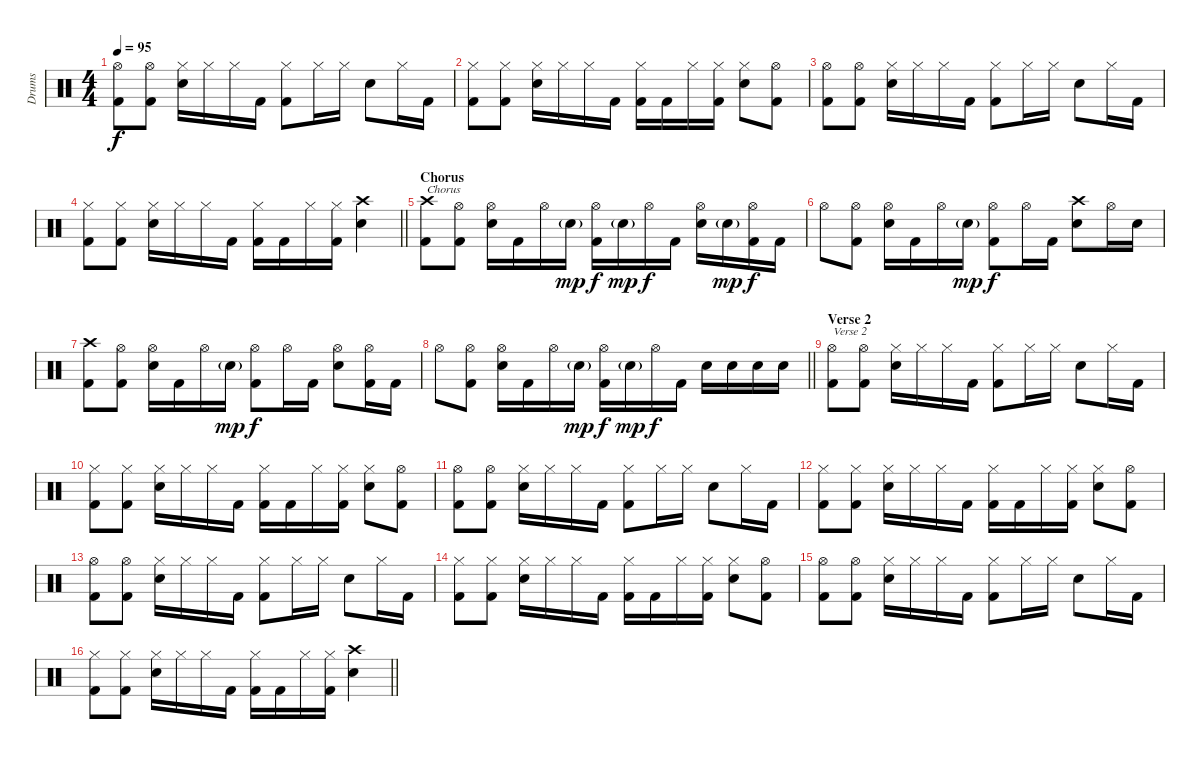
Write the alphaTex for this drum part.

\track ("Drums" "Drums") {instrument percussion}
\staff {score}
\articulation defaults
\ts (4 4)
\tempo 95
\clef neutral
\ks c
("Hi-Hat (open)" "Kick (hit) 2").8{dy f} ("Hi-Hat (open)" "Kick (hit) 2").8 ("Hi-Hat (closed)" "Electric Snare (hit)").16 "Hi-Hat (closed)".16 "Hi-Hat (closed)".16 "Kick (hit) 2".16 ("Hi-Hat (closed)" "Kick (hit) 2").8 "Hi-Hat (closed)".16 "Hi-Hat (closed)".16 "Electric Snare (hit)".8 "Hi-Hat (closed)".16 "Kick (hit) 2".16 |
("Hi-Hat (closed)" "Kick (hit) 2").8 ("Hi-Hat (closed)" "Kick (hit) 2").8 ("Hi-Hat (closed)" "Electric Snare (hit)").16 "Hi-Hat (closed)".16 "Hi-Hat (closed)".16 "Kick (hit) 2".16 ("Hi-Hat (closed)" "Kick (hit) 2").16 "Kick (hit) 2".16 "Hi-Hat (closed)".16 ("Hi-Hat (closed)" "Kick (hit) 2").16 ("Hi-Hat (closed)" "Electric Snare (hit)").8 ("Hi-Hat (open)" "Kick (hit) 2").8 |
("Hi-Hat (open)" "Kick (hit) 2").8 ("Hi-Hat (open)" "Kick (hit) 2").8 ("Hi-Hat (closed)" "Electric Snare (hit)").16 "Hi-Hat (closed)".16 "Hi-Hat (closed)".16 "Kick (hit) 2".16 ("Hi-Hat (closed)" "Kick (hit) 2").8 "Hi-Hat (closed)".16 "Hi-Hat (closed)".16 "Electric Snare (hit)".8 "Hi-Hat (closed)".16 "Kick (hit) 2".16 |
\barLineRight lightlight
("Hi-Hat (closed)" "Kick (hit) 2").8 ("Hi-Hat (closed)" "Kick (hit) 2").8 ("Hi-Hat (closed)" "Electric Snare (hit)").16 "Hi-Hat (closed)".16 "Hi-Hat (closed)".16 "Kick (hit) 2".16 ("Hi-Hat (closed)" "Kick (hit) 2").16 "Kick (hit) 2".16 "Hi-Hat (closed)".16 ("Hi-Hat (closed)" "Kick (hit) 2").16 ("Crash high (hit)" "Electric Snare (hit)").4 |
\section ("" "Chorus")
("Crash high (hit)" "Kick (hit) 2").8{txt "Chorus"} ("Hi-Hat (open)" "Kick (hit) 2").8 ("Hi-Hat (open)" "Electric Snare (hit)").16 "Kick (hit) 2".16 "Hi-Hat (open)".16 "Electric Snare (hit)"{g}.16{dy mp} ("Hi-Hat (open)" "Kick (hit) 2").16{dy f} "Electric Snare (hit)"{g}.16{dy mp} "Hi-Hat (open)".16{dy f} "Kick (hit) 2".16 ("Hi-Hat (open)" "Electric Snare (hit)").16 "Electric Snare (hit)"{g}.16{dy mp} ("Hi-Hat (open)" "Kick (hit) 2").16{dy f} "Kick (hit) 2".16 |
"Hi-Hat (open)".8 ("Hi-Hat (open)" "Kick (hit) 2").8 ("Hi-Hat (open)" "Electric Snare (hit)").16 "Kick (hit) 2".16 "Hi-Hat (open)".16 "Electric Snare (hit)"{g}.16{dy mp} ("Hi-Hat (open)" "Kick (hit) 2").8{dy f} "Hi-Hat (open)".16 "Kick (hit) 2".16 ("Crash high (hit)" "Electric Snare (hit)").8 "Hi-Hat (open)".16 "Electric Snare (hit)".16 |
("Crash high (hit)" "Kick (hit) 2").8 ("Hi-Hat (open)" "Kick (hit) 2").8 ("Hi-Hat (open)" "Electric Snare (hit)").16 "Kick (hit) 2".16 "Hi-Hat (open)".16 "Electric Snare (hit)"{g}.16{dy mp} ("Hi-Hat (open)" "Kick (hit) 2").8{dy f} "Hi-Hat (open)".16 "Kick (hit) 2".16 ("Hi-Hat (open)" "Electric Snare (hit)").8 ("Hi-Hat (open)" "Kick (hit) 2").16 "Kick (hit) 2".16 |
\barLineRight lightlight "Hi-Hat (open)".8
("Hi-Hat (open)" "Kick (hit) 2").8 ("Hi-Hat (open)" "Electric Snare (hit)").16 "Kick (hit) 2".16 "Hi-Hat (open)".16 "Electric Snare (hit)"{g}.16{dy mp} ("Hi-Hat (open)" "Kick (hit) 2").16{dy f} "Electric Snare (hit)"{g}.16{dy mp} "Hi-Hat (open)".16{dy f} "Kick (hit) 2".16 "Electric Snare (hit)".16 "Electric Snare (hit)".16 "Electric Snare (hit)".16 "Electric Snare (hit)".16 |
\section ("" "Verse 2")
("Hi-Hat (open)" "Kick (hit) 2").8{txt "Verse 2"} ("Hi-Hat (open)" "Kick (hit) 2").8 ("Hi-Hat (closed)" "Electric Snare (hit)").16 "Hi-Hat (closed)".16 "Hi-Hat (closed)".16 "Kick (hit) 2".16 ("Hi-Hat (closed)" "Kick (hit) 2").8 "Hi-Hat (closed)".16 "Hi-Hat (closed)".16 "Electric Snare (hit)".8 "Hi-Hat (closed)".16 "Kick (hit) 2".16 |
("Hi-Hat (closed)" "Kick (hit) 2").8 ("Hi-Hat (closed)" "Kick (hit) 2").8 ("Hi-Hat (closed)" "Electric Snare (hit)").16 "Hi-Hat (closed)".16 "Hi-Hat (closed)".16 "Kick (hit) 2".16 ("Hi-Hat (closed)" "Kick (hit) 2").16 "Kick (hit) 2".16 "Hi-Hat (closed)".16 ("Hi-Hat (closed)" "Kick (hit) 2").16 ("Hi-Hat (closed)" "Electric Snare (hit)").8 ("Hi-Hat (open)" "Kick (hit) 2").8 |
("Hi-Hat (open)" "Kick (hit) 2").8 ("Hi-Hat (open)" "Kick (hit) 2").8 ("Hi-Hat (closed)" "Electric Snare (hit)").16 "Hi-Hat (closed)".16 "Hi-Hat (closed)".16 "Kick (hit) 2".16 ("Hi-Hat (closed)" "Kick (hit) 2").8 "Hi-Hat (closed)".16 "Hi-Hat (closed)".16 "Electric Snare (hit)".8 "Hi-Hat (closed)".16 "Kick (hit) 2".16 |
("Hi-Hat (closed)" "Kick (hit) 2").8 ("Hi-Hat (closed)" "Kick (hit) 2").8 ("Hi-Hat (closed)" "Electric Snare (hit)").16 "Hi-Hat (closed)".16 "Hi-Hat (closed)".16 "Kick (hit) 2".16 ("Hi-Hat (closed)" "Kick (hit) 2").16 "Kick (hit) 2".16 "Hi-Hat (closed)".16 ("Hi-Hat (closed)" "Kick (hit) 2").16 ("Hi-Hat (closed)" "Electric Snare (hit)").8 ("Hi-Hat (open)" "Kick (hit) 2").8 |
("Hi-Hat (open)" "Kick (hit) 2").8 ("Hi-Hat (open)" "Kick (hit) 2").8 ("Hi-Hat (closed)" "Electric Snare (hit)").16 "Hi-Hat (closed)".16 "Hi-Hat (closed)".16 "Kick (hit) 2".16 ("Hi-Hat (closed)" "Kick (hit) 2").8 "Hi-Hat (closed)".16 "Hi-Hat (closed)".16 "Electric Snare (hit)".8 "Hi-Hat (closed)".16 "Kick (hit) 2".16 |
("Hi-Hat (closed)" "Kick (hit) 2").8 ("Hi-Hat (closed)" "Kick (hit) 2").8 ("Hi-Hat (closed)" "Electric Snare (hit)").16 "Hi-Hat (closed)".16 "Hi-Hat (closed)".16 "Kick (hit) 2".16 ("Hi-Hat (closed)" "Kick (hit) 2").16 "Kick (hit) 2".16 "Hi-Hat (closed)".16 ("Hi-Hat (closed)" "Kick (hit) 2").16 ("Hi-Hat (closed)" "Electric Snare (hit)").8 ("Hi-Hat (open)" "Kick (hit) 2").8 |
("Hi-Hat (open)" "Kick (hit) 2").8 ("Hi-Hat (open)" "Kick (hit) 2").8 ("Hi-Hat (closed)" "Electric Snare (hit)").16 "Hi-Hat (closed)".16 "Hi-Hat (closed)".16 "Kick (hit) 2".16 ("Hi-Hat (closed)" "Kick (hit) 2").8 "Hi-Hat (closed)".16 "Hi-Hat (closed)".16 "Electric Snare (hit)".8 "Hi-Hat (closed)".16 "Kick (hit) 2".16 |
\barLineRight lightlight
("Hi-Hat (closed)" "Kick (hit) 2").8 ("Hi-Hat (closed)" "Kick (hit) 2").8 ("Hi-Hat (closed)" "Electric Snare (hit)").16 "Hi-Hat (closed)".16 "Hi-Hat (closed)".16 "Kick (hit) 2".16 ("Hi-Hat (closed)" "Kick (hit) 2").16 "Kick (hit) 2".16 "Hi-Hat (closed)".16 ("Hi-Hat (closed)" "Kick (hit) 2").16 ("Crash high (hit)" "Electric Snare (hit)").4
